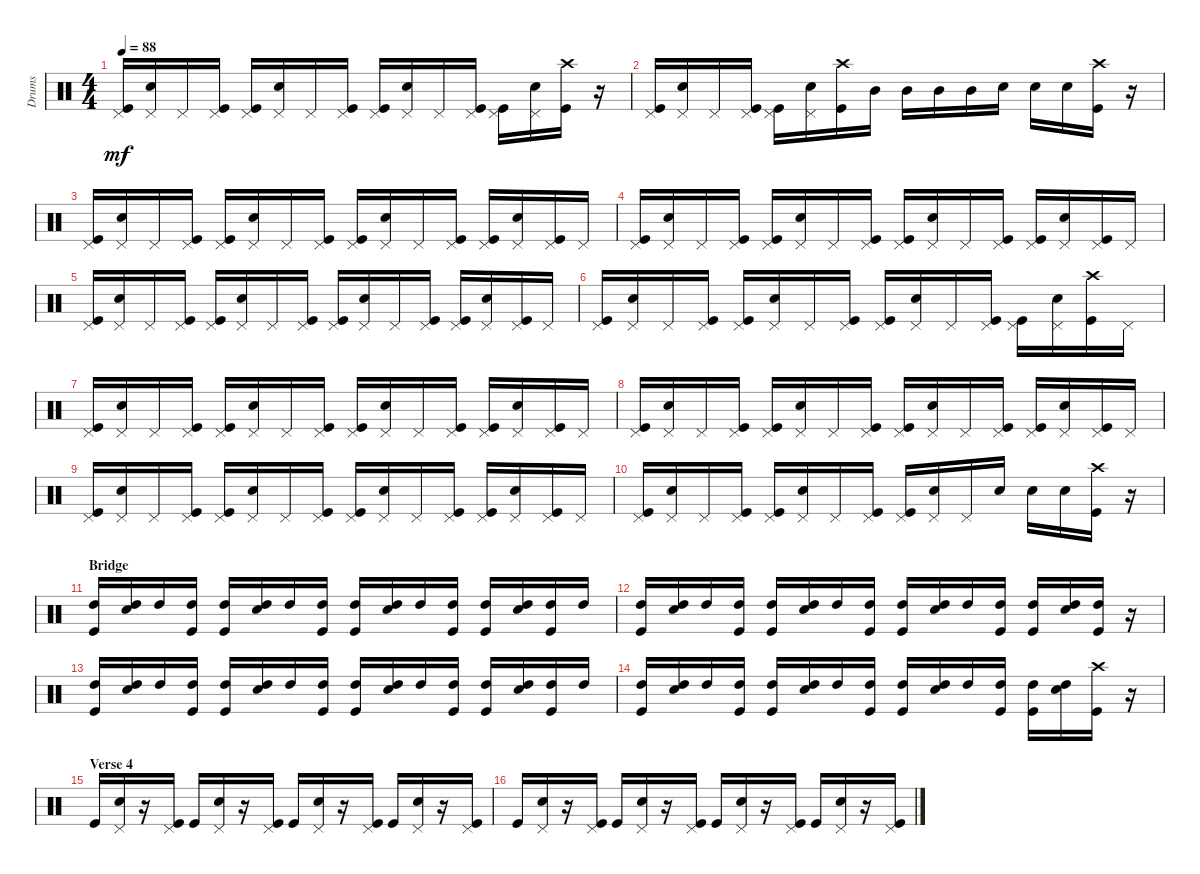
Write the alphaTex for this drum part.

\track ("Drums" "Drums") {instrument percussion}
\staff {score}
\articulation defaults
\ts (4 4)
\tempo 88
\clef neutral
\ks c
("Kick (hit)" "Pedal Hi-Hat (hit)").16{dy mf} ("Snare (hit) 2" "Pedal Hi-Hat (hit)").16 "Pedal Hi-Hat (hit)".16 ("Kick (hit)" "Pedal Hi-Hat (hit)").16 ("Kick (hit)" "Pedal Hi-Hat (hit)").16 ("Snare (hit) 2" "Pedal Hi-Hat (hit)").16 "Pedal Hi-Hat (hit)".16 ("Kick (hit)" "Pedal Hi-Hat (hit)").16 ("Kick (hit)" "Pedal Hi-Hat (hit)").16 ("Snare (hit) 2" "Pedal Hi-Hat (hit)").16 "Pedal Hi-Hat (hit)".16 ("Kick (hit)" "Pedal Hi-Hat (hit)").16 ("Kick (hit)" "Pedal Hi-Hat (hit)").16 ("Snare (hit) 2" "Pedal Hi-Hat (hit)").16 ("Kick (hit)" "Crash high (hit)").16 r.16 |
("Kick (hit)" "Pedal Hi-Hat (hit)").16 ("Snare (hit) 2" "Pedal Hi-Hat (hit)").16 "Pedal Hi-Hat (hit)".16 ("Kick (hit)" "Pedal Hi-Hat (hit)").16 ("Kick (hit)" "Pedal Hi-Hat (hit)").16 ("Snare (hit) 2" "Pedal Hi-Hat (hit)").16 ("Kick (hit)" "Crash high (hit)").16 "Mid Tom (hit)".16 "Mid Tom (hit)".16 "Mid Tom (hit)".16 "Mid Tom (hit)".16 "Snare (hit) 2".16 "Snare (hit) 2".16 "Snare (hit) 2".16 ("Kick (hit)" "Crash high (hit)").16 r.16 |
("Kick (hit)" "Pedal Hi-Hat (hit)").16 ("Snare (hit) 2" "Pedal Hi-Hat (hit)").16 "Pedal Hi-Hat (hit)".16 ("Kick (hit)" "Pedal Hi-Hat (hit)").16 ("Kick (hit)" "Pedal Hi-Hat (hit)").16 ("Snare (hit) 2" "Pedal Hi-Hat (hit)").16 "Pedal Hi-Hat (hit)".16 ("Kick (hit)" "Pedal Hi-Hat (hit)").16 ("Kick (hit)" "Pedal Hi-Hat (hit)").16 ("Snare (hit) 2" "Pedal Hi-Hat (hit)").16 "Pedal Hi-Hat (hit)".16 ("Kick (hit)" "Pedal Hi-Hat (hit)").16 ("Kick (hit)" "Pedal Hi-Hat (hit)").16 ("Snare (hit) 2" "Pedal Hi-Hat (hit)").16 ("Kick (hit)" "Pedal Hi-Hat (hit)").16 "Pedal Hi-Hat (hit)".16 |
("Kick (hit)" "Pedal Hi-Hat (hit)").16 ("Snare (hit) 2" "Pedal Hi-Hat (hit)").16 "Pedal Hi-Hat (hit)".16 ("Kick (hit)" "Pedal Hi-Hat (hit)").16 ("Kick (hit)" "Pedal Hi-Hat (hit)").16 ("Snare (hit) 2" "Pedal Hi-Hat (hit)").16 "Pedal Hi-Hat (hit)".16 ("Kick (hit)" "Pedal Hi-Hat (hit)").16 ("Kick (hit)" "Pedal Hi-Hat (hit)").16 ("Snare (hit) 2" "Pedal Hi-Hat (hit)").16 "Pedal Hi-Hat (hit)".16 ("Kick (hit)" "Pedal Hi-Hat (hit)").16 ("Kick (hit)" "Pedal Hi-Hat (hit)").16 ("Snare (hit) 2" "Pedal Hi-Hat (hit)").16 ("Kick (hit)" "Pedal Hi-Hat (hit)").16 "Pedal Hi-Hat (hit)".16 |
("Kick (hit)" "Pedal Hi-Hat (hit)").16 ("Snare (hit) 2" "Pedal Hi-Hat (hit)").16 "Pedal Hi-Hat (hit)".16 ("Kick (hit)" "Pedal Hi-Hat (hit)").16 ("Kick (hit)" "Pedal Hi-Hat (hit)").16 ("Snare (hit) 2" "Pedal Hi-Hat (hit)").16 "Pedal Hi-Hat (hit)".16 ("Kick (hit)" "Pedal Hi-Hat (hit)").16 ("Kick (hit)" "Pedal Hi-Hat (hit)").16 ("Snare (hit) 2" "Pedal Hi-Hat (hit)").16 "Pedal Hi-Hat (hit)".16 ("Kick (hit)" "Pedal Hi-Hat (hit)").16 ("Kick (hit)" "Pedal Hi-Hat (hit)").16 ("Snare (hit) 2" "Pedal Hi-Hat (hit)").16 ("Kick (hit)" "Pedal Hi-Hat (hit)").16 "Pedal Hi-Hat (hit)".16 |
("Kick (hit)" "Pedal Hi-Hat (hit)").16 ("Snare (hit) 2" "Pedal Hi-Hat (hit)").16 "Pedal Hi-Hat (hit)".16 ("Kick (hit)" "Pedal Hi-Hat (hit)").16 ("Kick (hit)" "Pedal Hi-Hat (hit)").16 ("Snare (hit) 2" "Pedal Hi-Hat (hit)").16 "Pedal Hi-Hat (hit)".16 ("Kick (hit)" "Pedal Hi-Hat (hit)").16 ("Kick (hit)" "Pedal Hi-Hat (hit)").16 ("Snare (hit) 2" "Pedal Hi-Hat (hit)").16 "Pedal Hi-Hat (hit)".16 ("Kick (hit)" "Pedal Hi-Hat (hit)").16 ("Kick (hit)" "Pedal Hi-Hat (hit)").16 ("Snare (hit) 2" "Pedal Hi-Hat (hit)").16 ("Kick (hit)" "Crash high (hit)").16 "Pedal Hi-Hat (hit)".16 |
("Kick (hit)" "Pedal Hi-Hat (hit)").16 ("Snare (hit) 2" "Pedal Hi-Hat (hit)").16 "Pedal Hi-Hat (hit)".16 ("Kick (hit)" "Pedal Hi-Hat (hit)").16 ("Kick (hit)" "Pedal Hi-Hat (hit)").16 ("Snare (hit) 2" "Pedal Hi-Hat (hit)").16 "Pedal Hi-Hat (hit)".16 ("Kick (hit)" "Pedal Hi-Hat (hit)").16 ("Kick (hit)" "Pedal Hi-Hat (hit)").16 ("Snare (hit) 2" "Pedal Hi-Hat (hit)").16 "Pedal Hi-Hat (hit)".16 ("Kick (hit)" "Pedal Hi-Hat (hit)").16 ("Kick (hit)" "Pedal Hi-Hat (hit)").16 ("Snare (hit) 2" "Pedal Hi-Hat (hit)").16 ("Kick (hit)" "Pedal Hi-Hat (hit)").16 "Pedal Hi-Hat (hit)".16 |
("Kick (hit)" "Pedal Hi-Hat (hit)").16 ("Snare (hit) 2" "Pedal Hi-Hat (hit)").16 "Pedal Hi-Hat (hit)".16 ("Kick (hit)" "Pedal Hi-Hat (hit)").16 ("Kick (hit)" "Pedal Hi-Hat (hit)").16 ("Snare (hit) 2" "Pedal Hi-Hat (hit)").16 "Pedal Hi-Hat (hit)".16 ("Kick (hit)" "Pedal Hi-Hat (hit)").16 ("Kick (hit)" "Pedal Hi-Hat (hit)").16 ("Snare (hit) 2" "Pedal Hi-Hat (hit)").16 "Pedal Hi-Hat (hit)".16 ("Kick (hit)" "Pedal Hi-Hat (hit)").16 ("Kick (hit)" "Pedal Hi-Hat (hit)").16 ("Snare (hit) 2" "Pedal Hi-Hat (hit)").16 ("Kick (hit)" "Pedal Hi-Hat (hit)").16 "Pedal Hi-Hat (hit)".16 |
("Kick (hit)" "Pedal Hi-Hat (hit)").16 ("Snare (hit) 2" "Pedal Hi-Hat (hit)").16 "Pedal Hi-Hat (hit)".16 ("Kick (hit)" "Pedal Hi-Hat (hit)").16 ("Kick (hit)" "Pedal Hi-Hat (hit)").16 ("Snare (hit) 2" "Pedal Hi-Hat (hit)").16 "Pedal Hi-Hat (hit)".16 ("Kick (hit)" "Pedal Hi-Hat (hit)").16 ("Kick (hit)" "Pedal Hi-Hat (hit)").16 ("Snare (hit) 2" "Pedal Hi-Hat (hit)").16 "Pedal Hi-Hat (hit)".16 ("Kick (hit)" "Pedal Hi-Hat (hit)").16 ("Kick (hit)" "Pedal Hi-Hat (hit)").16 ("Snare (hit) 2" "Pedal Hi-Hat (hit)").16 ("Kick (hit)" "Pedal Hi-Hat (hit)").16 "Pedal Hi-Hat (hit)".16 |
("Kick (hit)" "Pedal Hi-Hat (hit)").16 ("Snare (hit) 2" "Pedal Hi-Hat (hit)").16 "Pedal Hi-Hat (hit)".16 ("Kick (hit)" "Pedal Hi-Hat (hit)").16 ("Kick (hit)" "Pedal Hi-Hat (hit)").16 ("Snare (hit) 2" "Pedal Hi-Hat (hit)").16 "Pedal Hi-Hat (hit)".16 ("Kick (hit)" "Pedal Hi-Hat (hit)").16 ("Kick (hit)" "Pedal Hi-Hat (hit)").16 ("Snare (hit) 2" "Pedal Hi-Hat (hit)").16 "Pedal Hi-Hat (hit)".16 "Snare (hit) 2".16 "Snare (hit) 2".16 "Snare (hit) 2".16 ("Kick (hit)" "Crash high (hit)").16 r.16 |
\section ("" "Bridge")
("Kick (hit)" "High Tom (hit)").16 ("Snare (hit) 2" "High Tom (hit)").16 "High Tom (hit)".16 ("Kick (hit)" "High Tom (hit)").16 ("Kick (hit)" "High Tom (hit)").16 ("High Tom (hit)" "Snare (hit) 2").16 "High Tom (hit)".16 ("High Tom (hit)" "Kick (hit)").16 ("High Tom (hit)" "Kick (hit)").16 ("High Tom (hit)" "Snare (hit) 2").16 "High Tom (hit)".16 ("Kick (hit)" "High Tom (hit)").16 ("Kick (hit)" "High Tom (hit)").16 ("High Tom (hit)" "Snare (hit) 2").16 ("High Tom (hit)" "Kick (hit)").16 "High Tom (hit)".16 |
("Kick (hit)" "High Tom (hit)").16 ("Snare (hit) 2" "High Tom (hit)").16 "High Tom (hit)".16 ("Kick (hit)" "High Tom (hit)").16 ("Kick (hit)" "High Tom (hit)").16 ("High Tom (hit)" "Snare (hit) 2").16 "High Tom (hit)".16 ("High Tom (hit)" "Kick (hit)").16 ("High Tom (hit)" "Kick (hit)").16 ("High Tom (hit)" "Snare (hit) 2").16 "High Tom (hit)".16 ("Kick (hit)" "High Tom (hit)").16 ("Kick (hit)" "High Tom (hit)").16 ("High Tom (hit)" "Snare (hit) 2").16 ("Kick (hit)" "High Tom (hit)").16 r.16 |
("Kick (hit)" "High Tom (hit)").16 ("Snare (hit) 2" "High Tom (hit)").16 "High Tom (hit)".16 ("Kick (hit)" "High Tom (hit)").16 ("Kick (hit)" "High Tom (hit)").16 ("High Tom (hit)" "Snare (hit) 2").16 "High Tom (hit)".16 ("High Tom (hit)" "Kick (hit)").16 ("High Tom (hit)" "Kick (hit)").16 ("High Tom (hit)" "Snare (hit) 2").16 "High Tom (hit)".16 ("Kick (hit)" "High Tom (hit)").16 ("Kick (hit)" "High Tom (hit)").16 ("High Tom (hit)" "Snare (hit) 2").16 ("Kick (hit)" "High Tom (hit)").16 "High Tom (hit)".16 |
("Kick (hit)" "High Tom (hit)").16 ("Snare (hit) 2" "High Tom (hit)").16 "High Tom (hit)".16 ("Kick (hit)" "High Tom (hit)").16 ("Kick (hit)" "High Tom (hit)").16 ("High Tom (hit)" "Snare (hit) 2").16 "High Tom (hit)".16 ("High Tom (hit)" "Kick (hit)").16 ("High Tom (hit)" "Kick (hit)").16 ("High Tom (hit)" "Snare (hit) 2").16 "High Tom (hit)".16 ("Kick (hit)" "High Tom (hit)").16 ("Kick (hit)" "High Tom (hit)").16 ("High Tom (hit)" "Snare (hit) 2").16 ("Kick (hit)" "Crash high (hit)").16 r.16 |
\section ("" "Verse 4")
"Kick (hit)".16 ("Snare (hit) 2" "Pedal Hi-Hat (hit)").16 r.16 ("Kick (hit)" "Pedal Hi-Hat (hit)").16 "Kick (hit)".16 ("Snare (hit) 2" "Pedal Hi-Hat (hit)").16 r.16 ("Pedal Hi-Hat (hit)" "Kick (hit)").16 "Kick (hit)".16 ("Snare (hit) 2" "Pedal Hi-Hat (hit)").16 r.16 ("Kick (hit)" "Pedal Hi-Hat (hit)").16 "Kick (hit)".16 ("Snare (hit) 2" "Pedal Hi-Hat (hit)").16 r.16 ("Kick (hit)" "Pedal Hi-Hat (hit)").16 |
"Kick (hit)".16 ("Snare (hit) 2" "Pedal Hi-Hat (hit)").16 r.16 ("Kick (hit)" "Pedal Hi-Hat (hit)").16 "Kick (hit)".16 ("Snare (hit) 2" "Pedal Hi-Hat (hit)").16 r.16 ("Pedal Hi-Hat (hit)" "Kick (hit)").16 "Kick (hit)".16 ("Snare (hit) 2" "Pedal Hi-Hat (hit)").16 r.16 ("Kick (hit)" "Pedal Hi-Hat (hit)").16 "Kick (hit)".16 ("Snare (hit) 2" "Pedal Hi-Hat (hit)").16 r.16 ("Kick (hit)" "Pedal Hi-Hat (hit)").16
